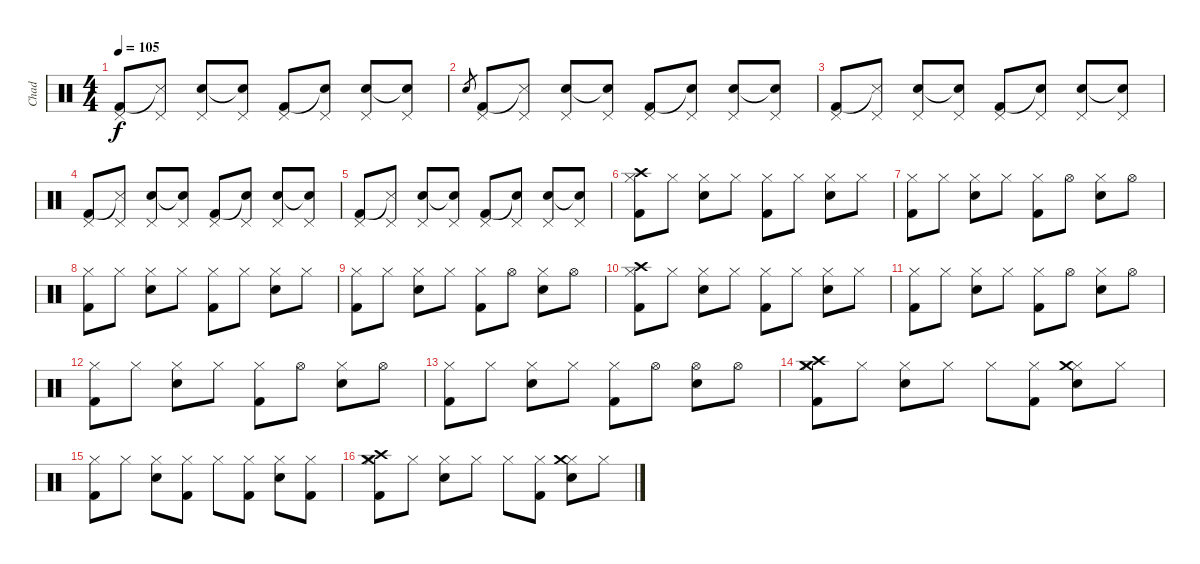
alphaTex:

\track ("Chad" "Chad") {instrument percussion}
\staff {score}
\articulation defaults
\ts (4 4)
\tempo 105
\clef neutral
\ks c
("Pedal Hi-Hat (hit)" "Kick (hit) 2").8{dy f} ("Pedal Hi-Hat (hit)" "Snare (side stick) 3"{t}).8 ("Pedal Hi-Hat (hit)" "Electric Snare (hit)").8 ("Pedal Hi-Hat (hit)" "Snare (hit)"{t}).8 ("Pedal Hi-Hat (hit)" "Kick (hit) 2").8 ("Pedal Hi-Hat (hit)" "Snare (hit)"{t}).8 ("Pedal Hi-Hat (hit)" "Electric Snare (hit)").8 ("Pedal Hi-Hat (hit)" "Snare (hit)"{t}).8 |
"Electric Snare (hit)".8{gr} ("Pedal Hi-Hat (hit)" "Kick (hit) 2").8 ("Pedal Hi-Hat (hit)" "Snare (side stick) 3"{t}).8 ("Pedal Hi-Hat (hit)" "Electric Snare (hit)").8 ("Pedal Hi-Hat (hit)" "Snare (hit)"{t}).8 ("Pedal Hi-Hat (hit)" "Kick (hit) 2").8 ("Pedal Hi-Hat (hit)" "Snare (hit)"{t}).8 ("Pedal Hi-Hat (hit)" "Electric Snare (hit)").8 ("Pedal Hi-Hat (hit)" "Snare (hit)"{t}).8 |
("Pedal Hi-Hat (hit)" "Kick (hit) 2").8 ("Pedal Hi-Hat (hit)" "Snare (side stick) 3"{t}).8 ("Pedal Hi-Hat (hit)" "Electric Snare (hit)").8 ("Pedal Hi-Hat (hit)" "Snare (hit)"{t}).8 ("Pedal Hi-Hat (hit)" "Kick (hit) 2").8 ("Pedal Hi-Hat (hit)" "Snare (hit)"{t}).8 ("Pedal Hi-Hat (hit)" "Electric Snare (hit)").8 ("Pedal Hi-Hat (hit)" "Snare (hit)"{t}).8 |
("Pedal Hi-Hat (hit)" "Kick (hit) 2").8 ("Pedal Hi-Hat (hit)" "Snare (side stick) 3"{t}).8 ("Pedal Hi-Hat (hit)" "Electric Snare (hit)").8 ("Pedal Hi-Hat (hit)" "Snare (hit)"{t}).8 ("Pedal Hi-Hat (hit)" "Kick (hit) 2").8 ("Pedal Hi-Hat (hit)" "Snare (hit)"{t}).8 ("Pedal Hi-Hat (hit)" "Electric Snare (hit)").8 ("Pedal Hi-Hat (hit)" "Snare (hit)"{t}).8 |
("Pedal Hi-Hat (hit)" "Kick (hit) 2").8 ("Pedal Hi-Hat (hit)" "Snare (side stick) 3"{t}).8 ("Pedal Hi-Hat (hit)" "Electric Snare (hit)").8 ("Pedal Hi-Hat (hit)" "Snare (hit)"{t}).8 ("Pedal Hi-Hat (hit)" "Kick (hit) 2").8 ("Pedal Hi-Hat (hit)" "Snare (hit)"{t}).8 ("Pedal Hi-Hat (hit)" "Electric Snare (hit)").8 ("Pedal Hi-Hat (hit)" "Snare (hit)"{t}).8 |
("Hi-Hat (closed)" "Kick (hit) 2" "Crash high (hit)").8 "Hi-Hat (closed)".8 ("Hi-Hat (closed)" "Electric Snare (hit)").8 "Hi-Hat (closed)".8 ("Hi-Hat (closed)" "Kick (hit) 2").8 "Hi-Hat (closed)".8 ("Hi-Hat (closed)" "Electric Snare (hit)").8 "Hi-Hat (closed)".8 |
("Hi-Hat (closed)" "Kick (hit) 2").8 "Hi-Hat (closed)".8 ("Hi-Hat (closed)" "Electric Snare (hit)").8 "Hi-Hat (closed)".8 ("Hi-Hat (closed)" "Kick (hit) 2").8 "Hi-Hat (open)".8 ("Hi-Hat (closed)" "Electric Snare (hit)").8 "Hi-Hat (open)".8 |
("Hi-Hat (closed)" "Kick (hit) 2").8 "Hi-Hat (closed)".8 ("Hi-Hat (closed)" "Electric Snare (hit)").8 "Hi-Hat (closed)".8 ("Hi-Hat (closed)" "Kick (hit) 2").8 "Hi-Hat (closed)".8 ("Hi-Hat (closed)" "Electric Snare (hit)").8 "Hi-Hat (closed)".8 |
("Hi-Hat (closed)" "Kick (hit) 2").8 "Hi-Hat (closed)".8 ("Hi-Hat (closed)" "Electric Snare (hit)").8 "Hi-Hat (closed)".8 ("Hi-Hat (closed)" "Kick (hit) 2").8 "Hi-Hat (open)".8 ("Hi-Hat (closed)" "Electric Snare (hit)").8 "Hi-Hat (open)".8 |
("Hi-Hat (closed)" "Kick (hit) 2" "Crash high (hit)").8 "Hi-Hat (closed)".8 ("Hi-Hat (closed)" "Electric Snare (hit)").8 "Hi-Hat (closed)".8 ("Hi-Hat (closed)" "Kick (hit) 2").8 "Hi-Hat (closed)".8 ("Hi-Hat (closed)" "Electric Snare (hit)").8 "Hi-Hat (closed)".8 |
("Hi-Hat (closed)" "Kick (hit) 2").8 "Hi-Hat (closed)".8 ("Hi-Hat (closed)" "Electric Snare (hit)").8 "Hi-Hat (closed)".8 ("Hi-Hat (closed)" "Kick (hit) 2").8 "Hi-Hat (open)".8 ("Hi-Hat (closed)" "Electric Snare (hit)").8 "Hi-Hat (open)".8 |
("Hi-Hat (closed)" "Kick (hit) 2").8 "Hi-Hat (closed)".8 ("Hi-Hat (closed)" "Electric Snare (hit)").8 "Hi-Hat (closed)".8 ("Hi-Hat (closed)" "Kick (hit) 2").8 "Hi-Hat (open)".8 ("Hi-Hat (closed)" "Electric Snare (hit)").8 "Hi-Hat (open)".8 |
("Hi-Hat (closed)" "Kick (hit) 2").8 "Hi-Hat (closed)".8 ("Hi-Hat (closed)" "Electric Snare (hit)").8 "Hi-Hat (closed)".8 ("Hi-Hat (closed)" "Kick (hit) 2").8 "Hi-Hat (open)".8 ("Hi-Hat (open)" "Electric Snare (hit)").8 "Hi-Hat (open)".8 |
("Hi-Hat (closed)" "Kick (hit) 2" "Crash high (hit)" "Crash medium (hit)").8 "Hi-Hat (closed)".8 ("Hi-Hat (closed)" "Electric Snare (hit)").8 "Hi-Hat (closed)".8 "Hi-Hat (closed)".8 ("Hi-Hat (closed)" "Kick (hit) 2").8 ("Hi-Hat (closed)" "Electric Snare (hit)" "Crash medium (hit)").8 "Hi-Hat (closed)".8 |
("Hi-Hat (closed)" "Kick (hit) 2").8 "Hi-Hat (closed)".8 ("Hi-Hat (closed)" "Electric Snare (hit)").8 ("Hi-Hat (closed)" "Kick (hit) 2").8 "Hi-Hat (closed)".8 ("Hi-Hat (closed)" "Kick (hit) 2").8 ("Hi-Hat (closed)" "Electric Snare (hit)").8 ("Hi-Hat (closed)" "Kick (hit) 2").8 |
("Hi-Hat (closed)" "Kick (hit) 2" "Crash high (hit)" "Crash medium (hit)").8 "Hi-Hat (closed)".8 ("Hi-Hat (closed)" "Electric Snare (hit)").8 "Hi-Hat (closed)".8 "Hi-Hat (closed)".8 ("Hi-Hat (closed)" "Kick (hit) 2").8 ("Hi-Hat (closed)" "Electric Snare (hit)" "Crash medium (hit)").8 "Hi-Hat (closed)".8
